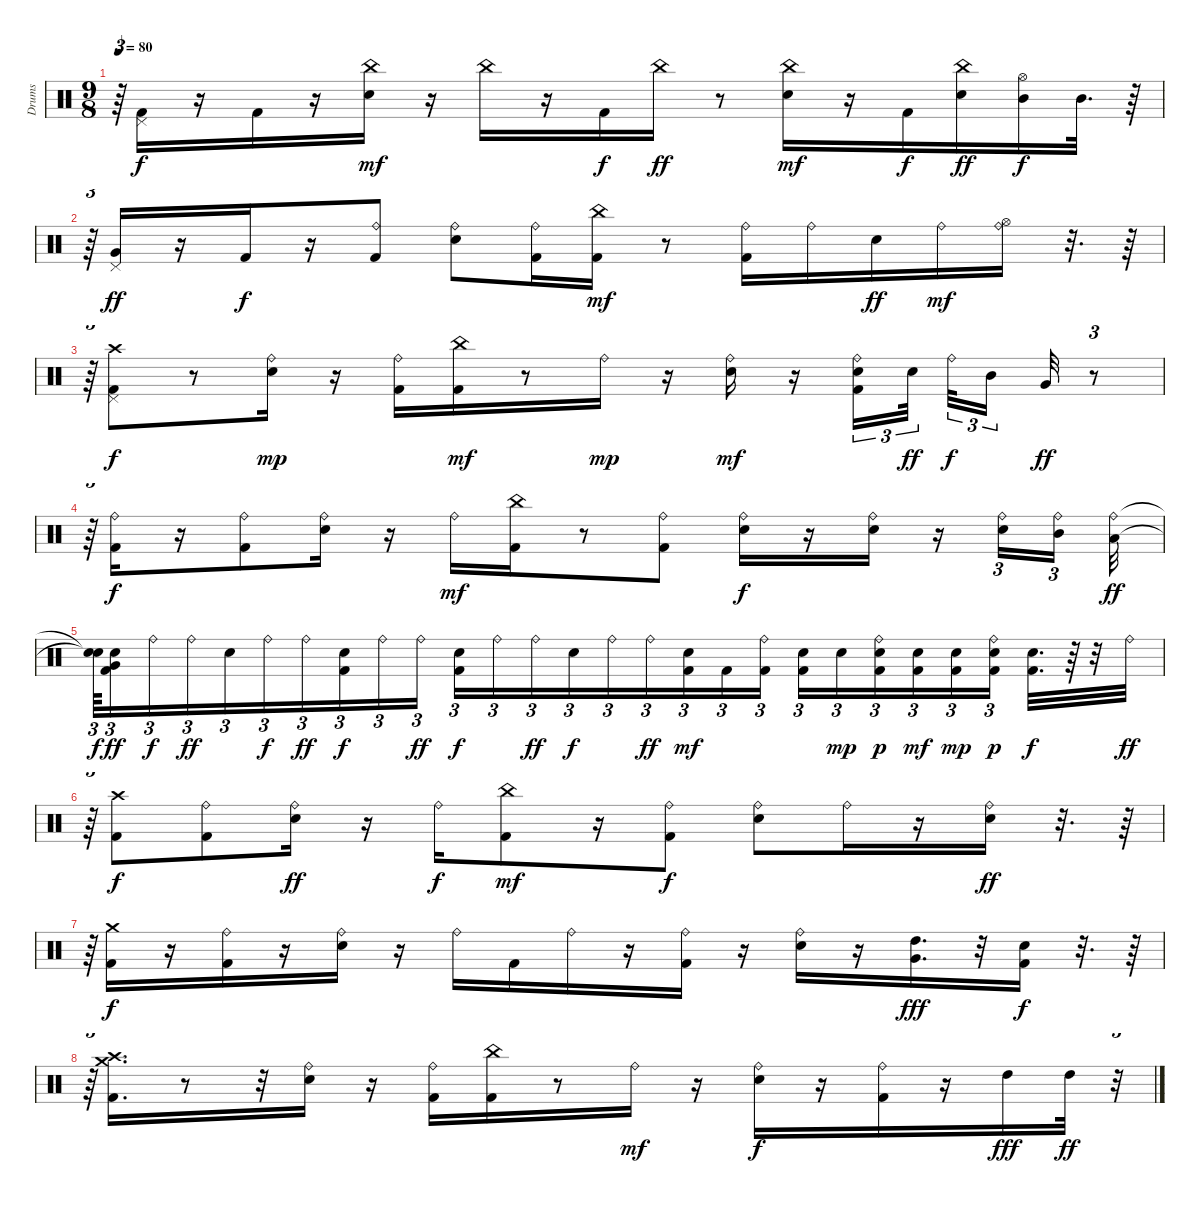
\track ("Drums" "Drums") {instrument percussion}
\staff {score}
\articulation defaults
\ts (9 8)
\tempo 80
\clef neutral
\ks c
r.64{tu (3 2) dy f} ("Pedal Hi-Hat (hit)" "Kick (hit) 2").16 r.16 "Kick (hit) 2".16 r.16 ("China (hit)" "Electric Snare (hit)").16{dy mf} r.16 "China (hit)".16 r.16 "Kick (hit) 2".16{dy f} "China (hit)".16{dy ff} r.8 ("China (hit)" "Electric Snare (hit)").16{dy mf} r.16 "Kick (hit) 2".16{dy f} ("China (hit)" "Electric Snare (hit)").16{dy ff} ("Hi-Hat (open)" "Mid Tom (hit)").16{dy f} "Mid Tom (hit)".32{d} r.64 |
r.64{tu (3 2)} ("Pedal Hi-Hat (hit)" "Very Low Tom (hit)").16{dy ff} r.16 "Kick (hit) 2".16{dy f} r.16 ("Kick (hit) 2" "Ride (bell)").8 ("Electric Snare (hit)" "Ride (bell)").8 ("Kick (hit) 2" "Ride (bell)").16 ("Kick (hit) 2" "China (hit)").16{dy mf} r.8 ("Kick (hit) 2" "Ride (bell)").16 "Ride (bell)".16 "Electric Snare (hit)".16{dy ff} "Ride (bell)".16{dy mf} ("Hi-Hat (open)" "Ride (bell)").16 r.32{d} r.64 |
r.64{tu (3 2)} ("Pedal Hi-Hat (hit)" "Crash high (hit)" "Kick (hit) 2").8{dy f} r.8 ("Electric Snare (hit)" "Ride (bell)").16{dy mp} r.16 ("Kick (hit) 2" "Ride (bell)").16 ("Kick (hit) 2" "China (hit)").16{dy mf} r.8 "Ride (bell)".16{dy mp} r.16 ("Electric Snare (hit)" "Ride (bell)").16{dy mf} r.16 ("Kick (hit) 2" "Ride (bell)" "Electric Snare (hit)").16{tu (3 2)} "Electric Snare (hit)".32{tu (3 2) dy ff beam splitsecondary} "Ride (bell)".32{tu (3 2) dy f} "Mid Tom (hit)".16{tu (3 2) beam splitsecondary} "Very Low Tom (hit)".32{dy ff} r.8{tu (3 2)} |
r.64{tu (3 2)} ("Ride (bell)" "Kick (hit) 2").16{dy f} r.16 ("Ride (bell)" "Kick (hit) 2").8 ("Ride (bell)" "Electric Snare (hit)").16 r.16 "Ride (bell)".16{dy mf} ("China (hit)" "Kick (hit) 2").16 r.8 ("Kick (hit) 2" "Ride (bell)").8 ("Electric Snare (hit)" "Ride (bell)").16{dy f} r.16 ("Electric Snare (hit)" "Ride (bell)").16 r.16 ("Ride (bell)" "Electric Snare (hit)").16{tu (3 2)} ("Ride (bell)" "Mid Tom (hit)").16{tu (3 2) beam splitsecondary} ("Ride (bell)" "Low Tom (hit)").32{dy ff} |
("Snare (hit)"{t} "Snare (hit)"{t}).64{tu (3 2) dy f} ("Very Low Tom (hit)" "Electric Snare (hit)" "Kick (hit) 2").16{tu (3 2) dy ff} "Ride (bell)".16{tu (3 2) dy f} "Ride (bell)".16{tu (3 2) dy ff} "Electric Snare (hit)".16{tu (3 2)} "Ride (bell)".16{tu (3 2) dy f} "Ride (bell)".16{tu (3 2) dy ff} ("Electric Snare (hit)" "Kick (hit) 2").16{tu (3 2) dy f} "Ride (bell)".16{tu (3 2)} "Ride (bell)".16{tu (3 2) dy ff} ("Electric Snare (hit)" "Kick (hit) 2").16{tu (3 2) dy f} "Ride (bell)".16{tu (3 2)} "Ride (bell)".16{tu (3 2) dy ff} "Electric Snare (hit)".16{tu (3 2) dy f} "Ride (bell)".16{tu (3 2)} "Ride (bell)".16{tu (3 2) dy ff} ("Electric Snare (hit)" "Kick (hit) 2").16{tu (3 2) dy mf} "Kick (hit) 2".16{tu (3 2)} ("Ride (bell)" "Kick (hit) 2").16{tu (3 2)} ("Kick (hit) 2" "Electric Snare (hit)").16{tu (3 2)} "Electric Snare (hit)".16{tu (3 2) dy mp} ("Ride (bell)" "Kick (hit) 2" "Electric Snare (hit)").16{tu (3 2) dy p} ("Kick (hit) 2" "Electric Snare (hit)").16{tu (3 2) dy mf} ("Kick (hit) 2" "Electric Snare (hit)").16{tu (3 2) dy mp} ("Ride (bell)" "Kick (hit) 2" "Electric Snare (hit)").16{tu (3 2) dy p beam splitsecondary} ("Kick (hit) 2" "Electric Snare (hit)").32{d dy f} r.64 r.32 "Ride (bell)".32{dy ff} |
r.64{tu (3 2)} ("Kick (hit) 2" "Crash high (hit)").8{dy f} ("Kick (hit) 2" "Ride (bell)").8 ("Electric Snare (hit)" "Ride (bell)").16{dy ff} r.16 "Ride (bell)".16{dy f} ("Kick (hit) 2" "China (hit)").8{dy mf} r.16 ("Kick (hit) 2" "Ride (bell)").8{dy f} ("Electric Snare (hit)" "Ride (bell)").8 "Ride (bell)".16 r.16 ("Electric Snare (hit)" "Ride (bell)").16{dy ff} r.32{d} r.64 |
r.64{tu (3 2)} ("Kick (hit) 2" "Crash medium (hit)").16{dy f} r.16 ("Kick (hit) 2" "Ride (bell)").16 r.16 ("Electric Snare (hit)" "Ride (bell)").16 r.16 "Ride (bell)".16 "Kick (hit) 2".16 "Ride (bell)".16 r.16 ("Kick (hit) 2" "Ride (bell)").16 r.16 ("Electric Snare (hit)" "Ride (bell)").16 r.16 ("High Tom (hit)" "Very Low Tom (hit)").16{d dy fff} r.32 ("Kick (hit) 2" "Electric Snare (hit)").16{dy f} r.32{d} r.64 |
r.64{tu (3 2)} ("Kick (hit) 2" "Crash high (hit)" "Crash medium (hit)").16{d} r.8 r.32 ("Electric Snare (hit)" "Ride (bell)").16 r.16 ("Kick (hit) 2" "Ride (bell)").16 ("Kick (hit) 2" "China (hit)").16 r.8 "Ride (bell)".16{dy mf} r.16 ("Electric Snare (hit)" "Ride (bell)").16{dy f} r.16 ("Kick (hit) 2" "Ride (bell)").16 r.16 "High Tom (hit)".16{dy fff} "High Tom (hit)".32{dy ff} r.32{tu (3 2)}
